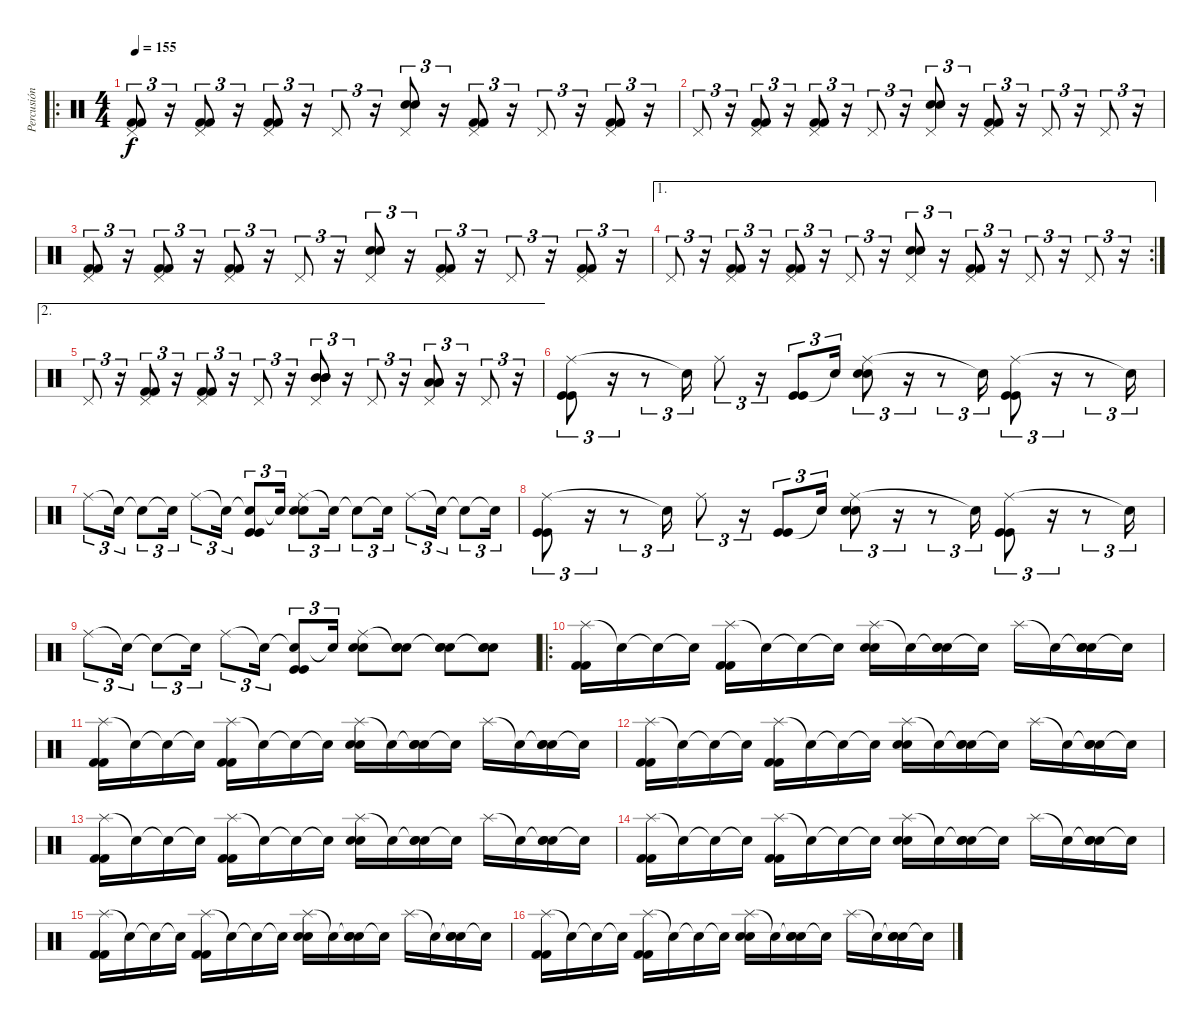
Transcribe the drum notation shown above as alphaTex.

\track ("Percusión" "Percusión") {instrument percussion}
\staff {score}
\articulation defaults
\ro
\ts (4 4)
\tempo 155
\clef neutral
\ks c
("Pedal Hi-Hat (hit)" "Kick (hit) 2" "Kick (hit) 2").8{tu (3 2) dy f} r.16{tu (3 2)} ("Pedal Hi-Hat (hit)" "Kick (hit) 2" "Kick (hit) 2").8{tu (3 2)} r.16{tu (3 2)} ("Pedal Hi-Hat (hit)" "Kick (hit) 2" "Kick (hit) 2").8{tu (3 2)} r.16{tu (3 2)} "Pedal Hi-Hat (hit)".8{tu (3 2)} r.16{tu (3 2)} ("Pedal Hi-Hat (hit)" "Electric Snare (hit)" "Electric Snare (hit)").8{tu (3 2)} r.16{tu (3 2)} ("Pedal Hi-Hat (hit)" "Kick (hit) 2" "Kick (hit) 2").8{tu (3 2)} r.16{tu (3 2)} "Pedal Hi-Hat (hit)".8{tu (3 2)} r.16{tu (3 2)} ("Pedal Hi-Hat (hit)" "Kick (hit) 2" "Kick (hit) 2").8{tu (3 2)} r.16{tu (3 2)} |
"Pedal Hi-Hat (hit)".8{tu (3 2)} r.16{tu (3 2)} ("Pedal Hi-Hat (hit)" "Kick (hit) 2" "Kick (hit) 2").8{tu (3 2)} r.16{tu (3 2)} ("Pedal Hi-Hat (hit)" "Kick (hit) 2" "Kick (hit) 2").8{tu (3 2)} r.16{tu (3 2)} "Pedal Hi-Hat (hit)".8{tu (3 2)} r.16{tu (3 2)} ("Pedal Hi-Hat (hit)" "Electric Snare (hit)" "Electric Snare (hit)").8{tu (3 2)} r.16{tu (3 2)} ("Pedal Hi-Hat (hit)" "Kick (hit) 2" "Kick (hit) 2").8{tu (3 2)} r.16{tu (3 2)} "Pedal Hi-Hat (hit)".8{tu (3 2)} r.16{tu (3 2)} "Pedal Hi-Hat (hit)".8{tu (3 2)} r.16{tu (3 2)} |
("Pedal Hi-Hat (hit)" "Kick (hit) 2" "Kick (hit) 2").8{tu (3 2)} r.16{tu (3 2)} ("Pedal Hi-Hat (hit)" "Kick (hit) 2" "Kick (hit) 2").8{tu (3 2)} r.16{tu (3 2)} ("Pedal Hi-Hat (hit)" "Kick (hit) 2" "Kick (hit) 2").8{tu (3 2)} r.16{tu (3 2)} "Pedal Hi-Hat (hit)".8{tu (3 2)} r.16{tu (3 2)} ("Pedal Hi-Hat (hit)" "Electric Snare (hit)" "Electric Snare (hit)").8{tu (3 2)} r.16{tu (3 2)} ("Pedal Hi-Hat (hit)" "Kick (hit) 2" "Kick (hit) 2").8{tu (3 2)} r.16{tu (3 2)} "Pedal Hi-Hat (hit)".8{tu (3 2)} r.16{tu (3 2)} ("Pedal Hi-Hat (hit)" "Kick (hit) 2" "Kick (hit) 2").8{tu (3 2)} r.16{tu (3 2)} |
\ae 1
\rc 2 "Pedal Hi-Hat (hit)".8{tu (3 2)}
r.16{tu (3 2)} ("Pedal Hi-Hat (hit)" "Kick (hit) 2" "Kick (hit) 2").8{tu (3 2)} r.16{tu (3 2)} ("Pedal Hi-Hat (hit)" "Kick (hit) 2" "Kick (hit) 2").8{tu (3 2)} r.16{tu (3 2)} "Pedal Hi-Hat (hit)".8{tu (3 2)} r.16{tu (3 2)} ("Pedal Hi-Hat (hit)" "Electric Snare (hit)" "Electric Snare (hit)").8{tu (3 2)} r.16{tu (3 2)} ("Pedal Hi-Hat (hit)" "Kick (hit) 2" "Kick (hit) 2").8{tu (3 2)} r.16{tu (3 2)} "Pedal Hi-Hat (hit)".8{tu (3 2)} r.16{tu (3 2)} "Pedal Hi-Hat (hit)".8{tu (3 2)} r.16{tu (3 2)} |
\ae 2 "Pedal Hi-Hat (hit)".8{tu (3 2)}
r.16{tu (3 2)} ("Pedal Hi-Hat (hit)" "Kick (hit) 2" "Kick (hit) 2").8{tu (3 2)} r.16{tu (3 2)} ("Pedal Hi-Hat (hit)" "Kick (hit) 2" "Kick (hit) 2").8{tu (3 2)} r.16{tu (3 2)} "Pedal Hi-Hat (hit)".8{tu (3 2)} r.16{tu (3 2)} ("Pedal Hi-Hat (hit)" "Mid Tom (hit)" "Mid Tom (hit)" "Mid Tom (hit)").8{tu (3 2)} r.16{tu (3 2)} "Pedal Hi-Hat (hit)".8{tu (3 2)} r.16{tu (3 2)} ("Pedal Hi-Hat (hit)" "Low Tom (hit)" "Low Tom (hit)" "Low Tom (hit)").8{tu (3 2)} r.16{tu (3 2)} "Pedal Hi-Hat (hit)".8{tu (3 2)} r.16{tu (3 2)} |
("Ride (middle)" "Kick (hit)" "Kick (hit)").8{tu (3 2)} r.16{tu (3 2)} r.8{tu (3 2)} "Snare (hit)"{t}.16{tu (3 2)} "Ride (middle)".8{tu (3 2)} r.16{tu (3 2)} ("Kick (hit)" "Kick (hit)").8{tu (3 2)} "Snare (hit)"{t}.16{tu (3 2)} ("Ride (middle)" "Snare (hit) 2" "Snare (hit) 2").8{tu (3 2)} r.16{tu (3 2)} r.8{tu (3 2)} "Snare (hit)"{t}.16{tu (3 2)} ("Ride (middle)" "Kick (hit)" "Kick (hit)").8{tu (3 2)} r.16{tu (3 2)} r.8{tu (3 2)} "Snare (hit)"{t}.16{tu (3 2)} |
"Ride (middle)".8{tu (3 2)} "Snare (hit)"{t}.16{tu (3 2)} "Snare (hit)"{t}.8{tu (3 2)} "Snare (hit)"{t}.16{tu (3 2)} "Ride (middle)".8{tu (3 2)} "Snare (hit)"{t}.16{tu (3 2)} ("Snare (hit)"{t} "Kick (hit)" "Kick (hit)").8{tu (3 2)} "Snare (hit)"{t}.16{tu (3 2)} ("Ride (middle)" "Snare (hit) 2" "Snare (hit) 2").8{tu (3 2)} "Snare (hit)"{t}.16{tu (3 2)} "Snare (hit)"{t}.8{tu (3 2)} "Snare (hit)"{t}.16{tu (3 2)} "Ride (middle)".8{tu (3 2)} "Snare (hit)"{t}.16{tu (3 2)} "Snare (hit)"{t}.8{tu (3 2)} "Snare (hit)"{t}.16{tu (3 2)} |
("Ride (middle)" "Kick (hit)" "Kick (hit)").8{tu (3 2)} r.16{tu (3 2)} r.8{tu (3 2)} "Snare (hit)"{t}.16{tu (3 2)} "Ride (middle)".8{tu (3 2)} r.16{tu (3 2)} ("Kick (hit)" "Kick (hit)").8{tu (3 2)} "Snare (hit)"{t}.16{tu (3 2)} ("Ride (middle)" "Snare (hit) 2" "Snare (hit) 2").8{tu (3 2)} r.16{tu (3 2)} r.8{tu (3 2)} "Snare (hit)"{t}.16{tu (3 2)} ("Ride (middle)" "Kick (hit)" "Kick (hit)").8{tu (3 2)} r.16{tu (3 2)} r.8{tu (3 2)} "Snare (hit)"{t}.16{tu (3 2)} |
"Ride (middle)".8{tu (3 2)} "Snare (hit)"{t}.16{tu (3 2)} "Snare (hit)"{t}.8{tu (3 2)} "Snare (hit)"{t}.16{tu (3 2)} "Ride (middle)".8{tu (3 2)} "Snare (hit)"{t}.16{tu (3 2)} ("Snare (hit)"{t} "Kick (hit)" "Kick (hit)").8{tu (3 2)} "Snare (hit)"{t}.16{tu (3 2)} ("Ride (middle)" "Electric Snare (hit)" "Electric Snare (hit)").8 ("Snare (hit)"{t} "Electric Snare (hit)" "Electric Snare (hit)").8 ("Snare (hit)"{t} "Electric Snare (hit)" "Electric Snare (hit)").8 ("Snare (hit)"{t} "Electric Snare (hit)" "Electric Snare (hit)").8 |
\ro
("Splash (hit)" "Kick (hit) 2" "Kick (hit) 2").16 "Snare (hit)"{t}.16 "Snare (hit)"{t}.16 "Snare (hit)"{t}.16 ("Splash (hit)" "Kick (hit) 2" "Kick (hit) 2").16 "Snare (hit)"{t}.16 "Snare (hit)"{t}.16 "Snare (hit)"{t}.16 ("Splash (hit)" "Electric Snare (hit)" "Electric Snare (hit)").16 "Snare (hit)"{t}.16 ("Snare (hit)"{t} "Electric Snare (hit)" "Electric Snare (hit)").16 "Snare (hit)"{t}.16 "Splash (hit)".16 "Snare (hit)"{t}.16 ("Snare (hit)"{t} "Electric Snare (hit)" "Electric Snare (hit)").16 "Snare (hit)"{t}.16 |
("Splash (hit)" "Kick (hit) 2" "Kick (hit) 2").16 "Snare (hit)"{t}.16 "Snare (hit)"{t}.16 "Snare (hit)"{t}.16 ("Splash (hit)" "Kick (hit) 2" "Kick (hit) 2").16 "Snare (hit)"{t}.16 "Snare (hit)"{t}.16 "Snare (hit)"{t}.16 ("Splash (hit)" "Electric Snare (hit)" "Electric Snare (hit)").16 "Snare (hit)"{t}.16 ("Snare (hit)"{t} "Electric Snare (hit)" "Electric Snare (hit)").16 "Snare (hit)"{t}.16 "Splash (hit)".16 "Snare (hit)"{t}.16 ("Snare (hit)"{t} "Electric Snare (hit)" "Electric Snare (hit)").16 "Snare (hit)"{t}.16 |
("Splash (hit)" "Kick (hit) 2" "Kick (hit) 2").16 "Snare (hit)"{t}.16 "Snare (hit)"{t}.16 "Snare (hit)"{t}.16 ("Splash (hit)" "Kick (hit) 2" "Kick (hit) 2").16 "Snare (hit)"{t}.16 "Snare (hit)"{t}.16 "Snare (hit)"{t}.16 ("Splash (hit)" "Electric Snare (hit)" "Electric Snare (hit)").16 "Snare (hit)"{t}.16 ("Snare (hit)"{t} "Electric Snare (hit)" "Electric Snare (hit)").16 "Snare (hit)"{t}.16 "Splash (hit)".16 "Snare (hit)"{t}.16 ("Snare (hit)"{t} "Electric Snare (hit)" "Electric Snare (hit)").16 "Snare (hit)"{t}.16 |
("Splash (hit)" "Kick (hit) 2" "Kick (hit) 2").16 "Snare (hit)"{t}.16 "Snare (hit)"{t}.16 "Snare (hit)"{t}.16 ("Splash (hit)" "Kick (hit) 2" "Kick (hit) 2").16 "Snare (hit)"{t}.16 "Snare (hit)"{t}.16 "Snare (hit)"{t}.16 ("Splash (hit)" "Electric Snare (hit)" "Electric Snare (hit)").16 "Snare (hit)"{t}.16 ("Snare (hit)"{t} "Electric Snare (hit)" "Electric Snare (hit)").16 "Snare (hit)"{t}.16 "Splash (hit)".16 "Snare (hit)"{t}.16 ("Snare (hit)"{t} "Electric Snare (hit)" "Electric Snare (hit)").16 "Snare (hit)"{t}.16 |
("Splash (hit)" "Kick (hit) 2" "Kick (hit) 2").16 "Snare (hit)"{t}.16 "Snare (hit)"{t}.16 "Snare (hit)"{t}.16 ("Splash (hit)" "Kick (hit) 2" "Kick (hit) 2").16 "Snare (hit)"{t}.16 "Snare (hit)"{t}.16 "Snare (hit)"{t}.16 ("Splash (hit)" "Electric Snare (hit)" "Electric Snare (hit)").16 "Snare (hit)"{t}.16 ("Snare (hit)"{t} "Electric Snare (hit)" "Electric Snare (hit)").16 "Snare (hit)"{t}.16 "Splash (hit)".16 "Snare (hit)"{t}.16 ("Snare (hit)"{t} "Electric Snare (hit)" "Electric Snare (hit)").16 "Snare (hit)"{t}.16 |
("Splash (hit)" "Kick (hit) 2" "Kick (hit) 2").16 "Snare (hit)"{t}.16 "Snare (hit)"{t}.16 "Snare (hit)"{t}.16 ("Splash (hit)" "Kick (hit) 2" "Kick (hit) 2").16 "Snare (hit)"{t}.16 "Snare (hit)"{t}.16 "Snare (hit)"{t}.16 ("Splash (hit)" "Electric Snare (hit)" "Electric Snare (hit)").16 "Snare (hit)"{t}.16 ("Snare (hit)"{t} "Electric Snare (hit)" "Electric Snare (hit)").16 "Snare (hit)"{t}.16 "Splash (hit)".16 "Snare (hit)"{t}.16 ("Snare (hit)"{t} "Electric Snare (hit)" "Electric Snare (hit)").16 "Snare (hit)"{t}.16 |
("Splash (hit)" "Kick (hit) 2" "Kick (hit) 2").16 "Snare (hit)"{t}.16 "Snare (hit)"{t}.16 "Snare (hit)"{t}.16 ("Splash (hit)" "Kick (hit) 2" "Kick (hit) 2").16 "Snare (hit)"{t}.16 "Snare (hit)"{t}.16 "Snare (hit)"{t}.16 ("Splash (hit)" "Electric Snare (hit)" "Electric Snare (hit)").16 "Snare (hit)"{t}.16 ("Snare (hit)"{t} "Electric Snare (hit)" "Electric Snare (hit)").16 "Snare (hit)"{t}.16 "Splash (hit)".16 "Snare (hit)"{t}.16 ("Snare (hit)"{t} "Electric Snare (hit)" "Electric Snare (hit)").16 "Snare (hit)"{t}.16
